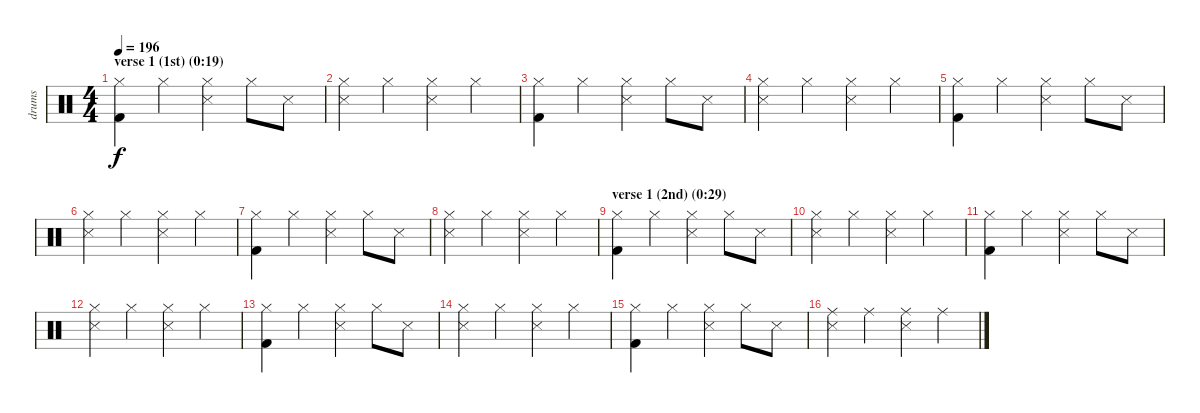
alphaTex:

\track ("drums" "drums") {instrument percussion}
\staff {score}
\articulation defaults
\ts (4 4)
\section ("" "verse 1 (1st) (0:19)")
\tempo 196
\clef neutral
\ks c
("Hi-Hat (closed)" "Kick (hit) 2").4{dy f} "Hi-Hat (closed)".4 ("Hi-Hat (closed)" "Snare (side stick) 3").4 "Hi-Hat (closed)".8 "Snare (side stick) 3".8 |
("Hi-Hat (closed)" "Snare (side stick) 3").4 "Hi-Hat (closed)".4 ("Hi-Hat (closed)" "Snare (side stick) 3").4 "Hi-Hat (closed)".4 |
("Hi-Hat (closed)" "Kick (hit) 2").4 "Hi-Hat (closed)".4 ("Hi-Hat (closed)" "Snare (side stick) 3").4 "Hi-Hat (closed)".8 "Snare (side stick) 3".8 |
("Hi-Hat (closed)" "Snare (side stick) 3").4 "Hi-Hat (closed)".4 ("Hi-Hat (closed)" "Snare (side stick) 3").4 "Hi-Hat (closed)".4 |
("Hi-Hat (closed)" "Kick (hit) 2").4 "Hi-Hat (closed)".4 ("Hi-Hat (closed)" "Snare (side stick) 3").4 "Hi-Hat (closed)".8 "Snare (side stick) 3".8 |
("Hi-Hat (closed)" "Snare (side stick) 3").4 "Hi-Hat (closed)".4 ("Hi-Hat (closed)" "Snare (side stick) 3").4 "Hi-Hat (closed)".4 |
("Hi-Hat (closed)" "Kick (hit) 2").4 "Hi-Hat (closed)".4 ("Hi-Hat (closed)" "Snare (side stick) 3").4 "Hi-Hat (closed)".8 "Snare (side stick) 3".8 |
("Hi-Hat (closed)" "Snare (side stick) 3").4 "Hi-Hat (closed)".4 ("Hi-Hat (closed)" "Snare (side stick) 3").4 "Hi-Hat (closed)".4 |
\section ("" "verse 1 (2nd) (0:29)")
("Hi-Hat (closed)" "Kick (hit) 2").4 "Hi-Hat (closed)".4 ("Hi-Hat (closed)" "Snare (side stick) 3").4 "Hi-Hat (closed)".8 "Snare (side stick) 3".8 |
("Hi-Hat (closed)" "Snare (side stick) 3").4 "Hi-Hat (closed)".4 ("Hi-Hat (closed)" "Snare (side stick) 3").4 "Hi-Hat (closed)".4 |
("Hi-Hat (closed)" "Kick (hit) 2").4 "Hi-Hat (closed)".4 ("Hi-Hat (closed)" "Snare (side stick) 3").4 "Hi-Hat (closed)".8 "Snare (side stick) 3".8 |
("Hi-Hat (closed)" "Snare (side stick) 3").4 "Hi-Hat (closed)".4 ("Hi-Hat (closed)" "Snare (side stick) 3").4 "Hi-Hat (closed)".4 |
("Hi-Hat (closed)" "Kick (hit) 2").4 "Hi-Hat (closed)".4 ("Hi-Hat (closed)" "Snare (side stick) 3").4 "Hi-Hat (closed)".8 "Snare (side stick) 3".8 |
("Hi-Hat (closed)" "Snare (side stick) 3").4 "Hi-Hat (closed)".4 ("Hi-Hat (closed)" "Snare (side stick) 3").4 "Hi-Hat (closed)".4 |
("Hi-Hat (closed)" "Kick (hit) 2").4 "Hi-Hat (closed)".4 ("Hi-Hat (closed)" "Snare (side stick) 3").4 "Hi-Hat (closed)".8 "Snare (side stick) 3".8 |
("Ride (middle)" "Snare (side stick) 3").4 "Ride (middle)".4 ("Ride (middle)" "Snare (side stick) 3").4 "Ride (middle)".4
